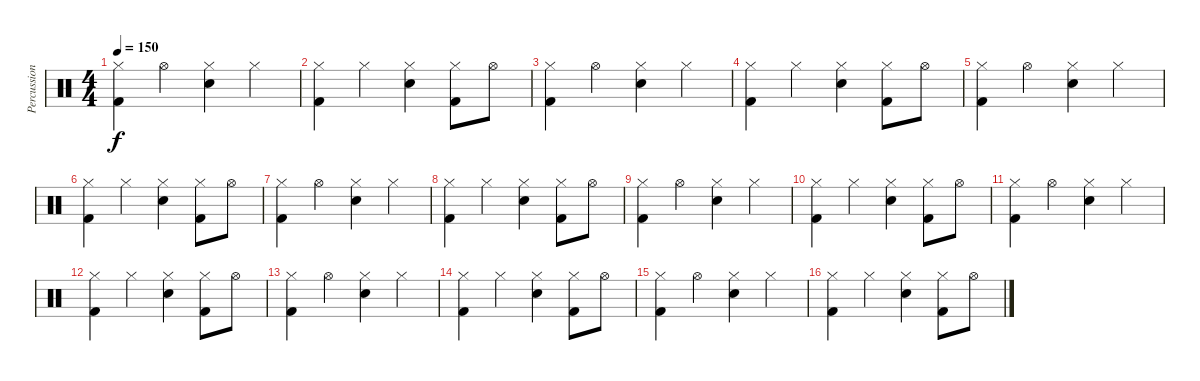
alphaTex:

\track ("Percussion" "Percussion") {instrument percussion}
\staff {score}
\articulation defaults
\ts (4 4)
\tempo 150
\clef neutral
\ks c
("Hi-Hat (closed)" "Kick (hit) 2").4{dy f} "Hi-Hat (open)".4 ("Hi-Hat (closed)" "Snare (hit) 2").4 "Hi-Hat (closed)".4 |
("Hi-Hat (closed)" "Kick (hit) 2").4 "Hi-Hat (closed)".4 ("Hi-Hat (closed)" "Snare (hit) 2").4 ("Hi-Hat (closed)" "Kick (hit) 2").8 "Hi-Hat (open)".8 |
("Hi-Hat (closed)" "Kick (hit) 2").4 "Hi-Hat (open)".4 ("Hi-Hat (closed)" "Snare (hit) 2").4 "Hi-Hat (closed)".4 |
("Hi-Hat (closed)" "Kick (hit) 2").4 "Hi-Hat (closed)".4 ("Hi-Hat (closed)" "Snare (hit) 2").4 ("Hi-Hat (closed)" "Kick (hit) 2").8 "Hi-Hat (open)".8 |
("Hi-Hat (closed)" "Kick (hit) 2").4 "Hi-Hat (open)".4 ("Hi-Hat (closed)" "Snare (hit) 2").4 "Hi-Hat (closed)".4 |
("Hi-Hat (closed)" "Kick (hit) 2").4 "Hi-Hat (closed)".4 ("Hi-Hat (closed)" "Snare (hit) 2").4 ("Hi-Hat (closed)" "Kick (hit) 2").8 "Hi-Hat (open)".8 |
("Hi-Hat (closed)" "Kick (hit) 2").4 "Hi-Hat (open)".4 ("Hi-Hat (closed)" "Snare (hit) 2").4 "Hi-Hat (closed)".4 |
("Hi-Hat (closed)" "Kick (hit) 2").4 "Hi-Hat (closed)".4 ("Hi-Hat (closed)" "Snare (hit) 2").4 ("Hi-Hat (closed)" "Kick (hit) 2").8 "Hi-Hat (open)".8 |
("Hi-Hat (closed)" "Kick (hit) 2").4 "Hi-Hat (open)".4 ("Hi-Hat (closed)" "Snare (hit) 2").4 "Hi-Hat (closed)".4 |
("Hi-Hat (closed)" "Kick (hit) 2").4 "Hi-Hat (closed)".4 ("Hi-Hat (closed)" "Snare (hit) 2").4 ("Hi-Hat (closed)" "Kick (hit) 2").8 "Hi-Hat (open)".8 |
("Hi-Hat (closed)" "Kick (hit) 2").4 "Hi-Hat (open)".4 ("Hi-Hat (closed)" "Snare (hit) 2").4 "Hi-Hat (closed)".4 |
("Hi-Hat (closed)" "Kick (hit) 2").4 "Hi-Hat (closed)".4 ("Hi-Hat (closed)" "Snare (hit) 2").4 ("Hi-Hat (closed)" "Kick (hit) 2").8 "Hi-Hat (open)".8 |
("Hi-Hat (closed)" "Kick (hit) 2").4 "Hi-Hat (open)".4 ("Hi-Hat (closed)" "Snare (hit) 2").4 "Hi-Hat (closed)".4 |
("Hi-Hat (closed)" "Kick (hit) 2").4 "Hi-Hat (closed)".4 ("Hi-Hat (closed)" "Snare (hit) 2").4 ("Hi-Hat (closed)" "Kick (hit) 2").8 "Hi-Hat (open)".8 |
("Hi-Hat (closed)" "Kick (hit) 2").4 "Hi-Hat (open)".4 ("Hi-Hat (closed)" "Snare (hit) 2").4 "Hi-Hat (closed)".4 |
("Hi-Hat (closed)" "Kick (hit) 2").4 "Hi-Hat (closed)".4 ("Hi-Hat (closed)" "Snare (hit) 2").4 ("Hi-Hat (closed)" "Kick (hit) 2").8 "Hi-Hat (open)".8
